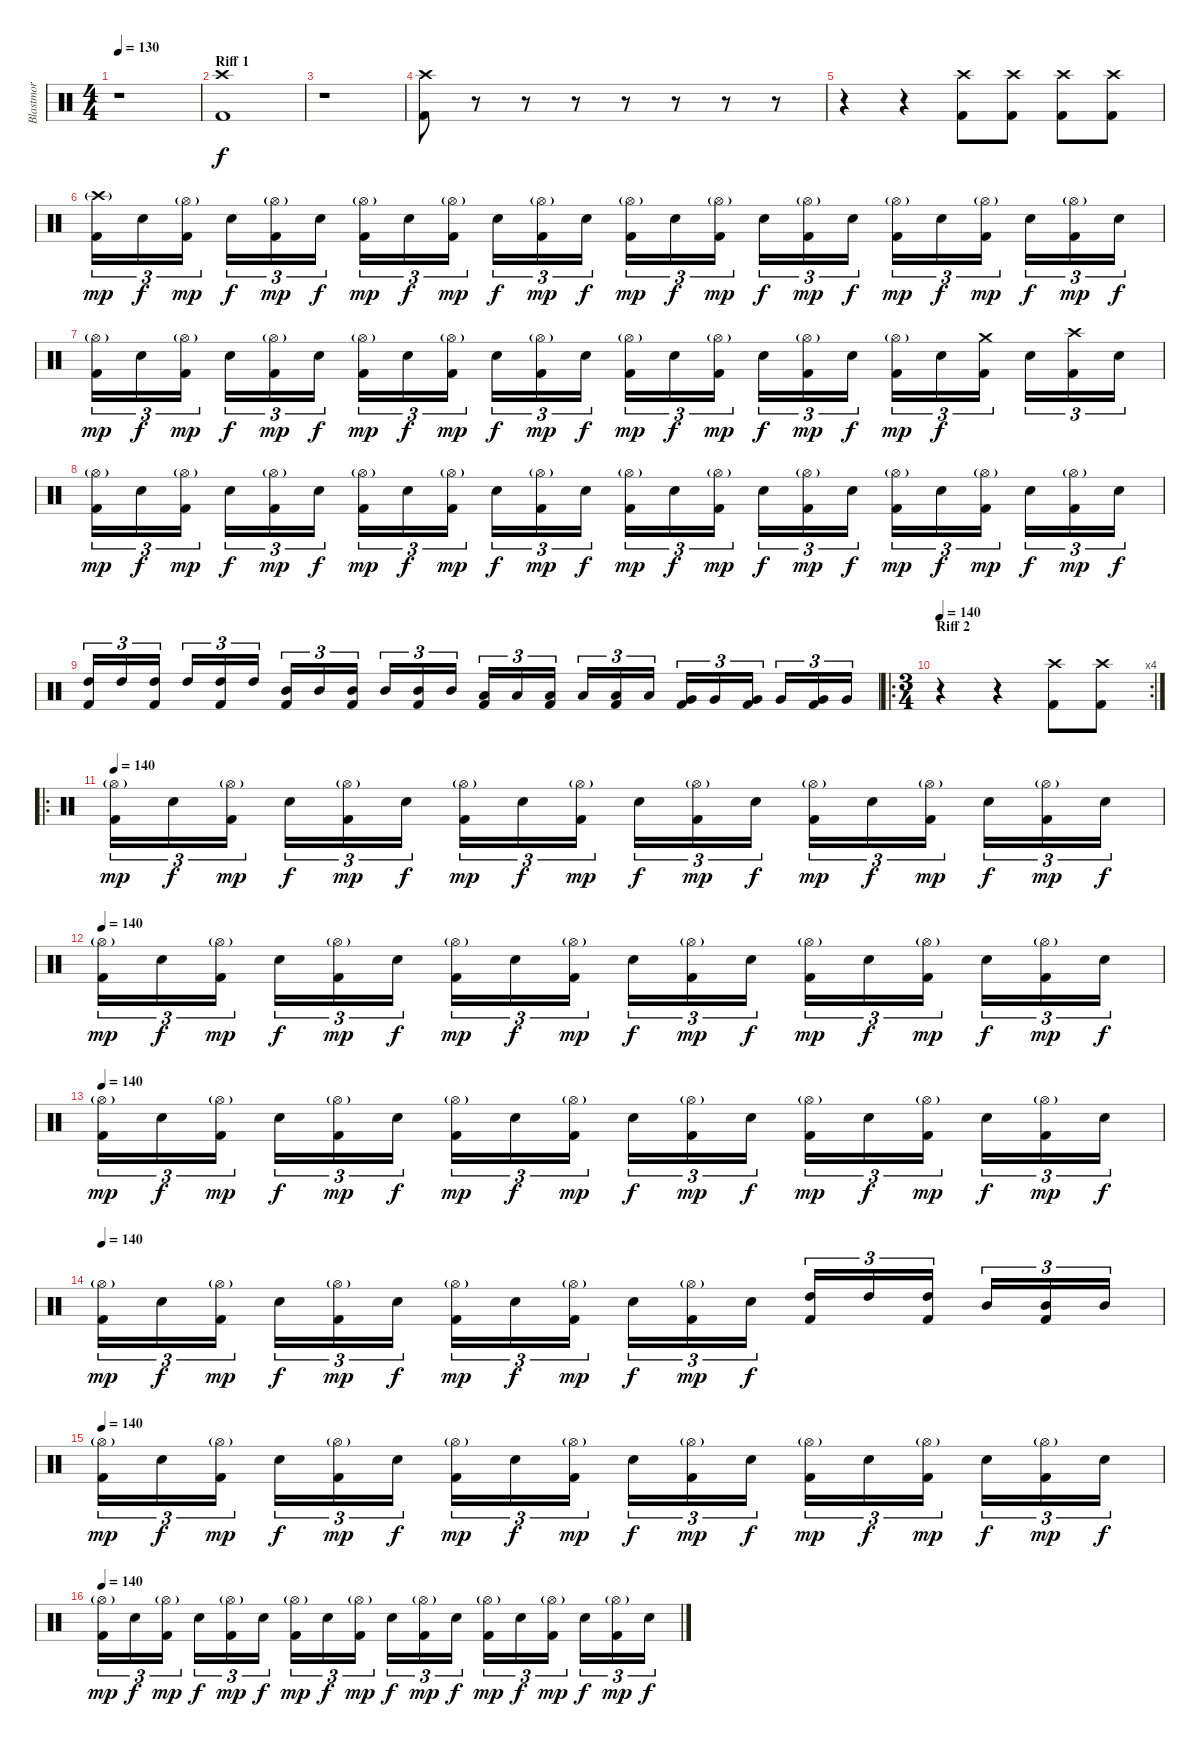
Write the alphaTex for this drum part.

\track ("Blastmor" "Blastmor") {instrument percussion}
\staff {score}
\articulation defaults
\ts (4 4)
\tempo 130
\clef neutral
\ks c
r.1{dy f} |
\section ("" "Riff 1")
("Crash high (hit)" "Kick (hit) 2").1 |
r.1 |
("Crash high (hit)" "Kick (hit) 2").8 r.8 r.8 r.8 r.8 r.8 r.8 r.8 |
r.4 r.4 ("Crash high (hit)" "Kick (hit) 2").8 ("Crash high (hit)" "Kick (hit) 2").8 ("Crash high (hit)" "Kick (hit) 2").8 ("Crash high (hit)" "Kick (hit) 2").8 |
("Crash high (hit)"{g} "Kick (hit) 2").16{tu (3 2) dy mp} "Electric Snare (hit)".16{tu (3 2) dy f} ("Hi-Hat (open)"{g} "Kick (hit) 2").16{tu (3 2) dy mp} "Electric Snare (hit)".16{tu (3 2) dy f} ("Hi-Hat (open)"{g} "Kick (hit) 2").16{tu (3 2) dy mp} "Electric Snare (hit)".16{tu (3 2) dy f} ("Hi-Hat (open)"{g} "Kick (hit) 2").16{tu (3 2) dy mp} "Electric Snare (hit)".16{tu (3 2) dy f} ("Hi-Hat (open)"{g} "Kick (hit) 2").16{tu (3 2) dy mp} "Electric Snare (hit)".16{tu (3 2) dy f} ("Hi-Hat (open)"{g} "Kick (hit) 2").16{tu (3 2) dy mp} "Electric Snare (hit)".16{tu (3 2) dy f} ("Hi-Hat (open)"{g} "Kick (hit) 2").16{tu (3 2) dy mp} "Electric Snare (hit)".16{tu (3 2) dy f} ("Hi-Hat (open)"{g} "Kick (hit) 2").16{tu (3 2) dy mp} "Electric Snare (hit)".16{tu (3 2) dy f} ("Hi-Hat (open)"{g} "Kick (hit) 2").16{tu (3 2) dy mp} "Electric Snare (hit)".16{tu (3 2) dy f} ("Hi-Hat (open)"{g} "Kick (hit) 2").16{tu (3 2) dy mp} "Electric Snare (hit)".16{tu (3 2) dy f} ("Hi-Hat (open)"{g} "Kick (hit) 2").16{tu (3 2) dy mp} "Electric Snare (hit)".16{tu (3 2) dy f} ("Hi-Hat (open)"{g} "Kick (hit) 2").16{tu (3 2) dy mp} "Electric Snare (hit)".16{tu (3 2) dy f} |
("Hi-Hat (open)"{g} "Kick (hit) 2").16{tu (3 2) dy mp} "Electric Snare (hit)".16{tu (3 2) dy f} ("Hi-Hat (open)"{g} "Kick (hit) 2").16{tu (3 2) dy mp} "Electric Snare (hit)".16{tu (3 2) dy f} ("Hi-Hat (open)"{g} "Kick (hit) 2").16{tu (3 2) dy mp} "Electric Snare (hit)".16{tu (3 2) dy f} ("Hi-Hat (open)"{g} "Kick (hit) 2").16{tu (3 2) dy mp} "Electric Snare (hit)".16{tu (3 2) dy f} ("Hi-Hat (open)"{g} "Kick (hit) 2").16{tu (3 2) dy mp} "Electric Snare (hit)".16{tu (3 2) dy f} ("Hi-Hat (open)"{g} "Kick (hit) 2").16{tu (3 2) dy mp} "Electric Snare (hit)".16{tu (3 2) dy f} ("Hi-Hat (open)"{g} "Kick (hit) 2").16{tu (3 2) dy mp} "Electric Snare (hit)".16{tu (3 2) dy f} ("Hi-Hat (open)"{g} "Kick (hit) 2").16{tu (3 2) dy mp} "Electric Snare (hit)".16{tu (3 2) dy f} ("Hi-Hat (open)"{g} "Kick (hit) 2").16{tu (3 2) dy mp} "Electric Snare (hit)".16{tu (3 2) dy f} ("Hi-Hat (open)"{g} "Kick (hit) 2").16{tu (3 2) dy mp} "Electric Snare (hit)".16{tu (3 2) dy f} ("Crash medium (hit)" "Kick (hit) 2").16{tu (3 2)} "Electric Snare (hit)".16{tu (3 2)} ("Crash high (hit)" "Kick (hit) 2").16{tu (3 2)} "Electric Snare (hit)".16{tu (3 2)} |
("Hi-Hat (open)"{g} "Kick (hit) 2").16{tu (3 2) dy mp} "Electric Snare (hit)".16{tu (3 2) dy f} ("Hi-Hat (open)"{g} "Kick (hit) 2").16{tu (3 2) dy mp} "Electric Snare (hit)".16{tu (3 2) dy f} ("Hi-Hat (open)"{g} "Kick (hit) 2").16{tu (3 2) dy mp} "Electric Snare (hit)".16{tu (3 2) dy f} ("Hi-Hat (open)"{g} "Kick (hit) 2").16{tu (3 2) dy mp} "Electric Snare (hit)".16{tu (3 2) dy f} ("Hi-Hat (open)"{g} "Kick (hit) 2").16{tu (3 2) dy mp} "Electric Snare (hit)".16{tu (3 2) dy f} ("Hi-Hat (open)"{g} "Kick (hit) 2").16{tu (3 2) dy mp} "Electric Snare (hit)".16{tu (3 2) dy f} ("Hi-Hat (open)"{g} "Kick (hit) 2").16{tu (3 2) dy mp} "Electric Snare (hit)".16{tu (3 2) dy f} ("Hi-Hat (open)"{g} "Kick (hit) 2").16{tu (3 2) dy mp} "Electric Snare (hit)".16{tu (3 2) dy f} ("Hi-Hat (open)"{g} "Kick (hit) 2").16{tu (3 2) dy mp} "Electric Snare (hit)".16{tu (3 2) dy f} ("Hi-Hat (open)"{g} "Kick (hit) 2").16{tu (3 2) dy mp} "Electric Snare (hit)".16{tu (3 2) dy f} ("Hi-Hat (open)"{g} "Kick (hit) 2").16{tu (3 2) dy mp} "Electric Snare (hit)".16{tu (3 2) dy f} ("Hi-Hat (open)"{g} "Kick (hit) 2").16{tu (3 2) dy mp} "Electric Snare (hit)".16{tu (3 2) dy f} |
("High Tom (hit)" "Kick (hit) 2").16{tu (3 2)} "High Tom (hit)".16{tu (3 2)} ("High Tom (hit)" "Kick (hit) 2").16{tu (3 2)} "High Tom (hit)".16{tu (3 2)} ("High Tom (hit)" "Kick (hit) 2").16{tu (3 2)} "High Tom (hit)".16{tu (3 2)} ("Mid Tom (hit)" "Kick (hit) 2").16{tu (3 2)} "Mid Tom (hit)".16{tu (3 2)} ("Mid Tom (hit)" "Kick (hit) 2").16{tu (3 2)} "Mid Tom (hit)".16{tu (3 2)} ("Mid Tom (hit)" "Kick (hit) 2").16{tu (3 2)} "Mid Tom (hit)".16{tu (3 2)} ("Low Tom (hit)" "Kick (hit) 2").16{tu (3 2)} "Low Tom (hit)".16{tu (3 2)} ("Low Tom (hit)" "Kick (hit) 2").16{tu (3 2)} "Low Tom (hit)".16{tu (3 2)} ("Low Tom (hit)" "Kick (hit) 2").16{tu (3 2)} "Low Tom (hit)".16{tu (3 2)} ("Very Low Tom (hit)" "Kick (hit) 2").16{tu (3 2)} "Very Low Tom (hit)".16{tu (3 2)} ("Very Low Tom (hit)" "Kick (hit) 2").16{tu (3 2)} "Very Low Tom (hit)".16{tu (3 2)} ("Very Low Tom (hit)" "Kick (hit) 2").16{tu (3 2)} "Very Low Tom (hit)".16{tu (3 2)} |
\ro
\rc 4
\ts (3 4)
\section ("" "Riff 2")
\tempo 140
r.4 r.4 ("Crash high (hit)" "Kick (hit) 2").8 ("Crash high (hit)" "Kick (hit) 2").8 |
\ro
\tempo 140
("Hi-Hat (open)"{g} "Kick (hit) 2").16{tu (3 2) dy mp} "Electric Snare (hit)".16{tu (3 2) dy f} ("Hi-Hat (open)"{g} "Kick (hit) 2").16{tu (3 2) dy mp} "Electric Snare (hit)".16{tu (3 2) dy f} ("Hi-Hat (open)"{g} "Kick (hit) 2").16{tu (3 2) dy mp} "Electric Snare (hit)".16{tu (3 2) dy f} ("Hi-Hat (open)"{g} "Kick (hit) 2").16{tu (3 2) dy mp} "Electric Snare (hit)".16{tu (3 2) dy f} ("Hi-Hat (open)"{g} "Kick (hit) 2").16{tu (3 2) dy mp} "Electric Snare (hit)".16{tu (3 2) dy f} ("Hi-Hat (open)"{g} "Kick (hit) 2").16{tu (3 2) dy mp} "Electric Snare (hit)".16{tu (3 2) dy f} ("Hi-Hat (open)"{g} "Kick (hit) 2").16{tu (3 2) dy mp} "Electric Snare (hit)".16{tu (3 2) dy f} ("Hi-Hat (open)"{g} "Kick (hit) 2").16{tu (3 2) dy mp} "Electric Snare (hit)".16{tu (3 2) dy f} ("Hi-Hat (open)"{g} "Kick (hit) 2").16{tu (3 2) dy mp} "Electric Snare (hit)".16{tu (3 2) dy f} |
\tempo 140
("Hi-Hat (open)"{g} "Kick (hit) 2").16{tu (3 2) dy mp} "Electric Snare (hit)".16{tu (3 2) dy f} ("Hi-Hat (open)"{g} "Kick (hit) 2").16{tu (3 2) dy mp} "Electric Snare (hit)".16{tu (3 2) dy f} ("Hi-Hat (open)"{g} "Kick (hit) 2").16{tu (3 2) dy mp} "Electric Snare (hit)".16{tu (3 2) dy f} ("Hi-Hat (open)"{g} "Kick (hit) 2").16{tu (3 2) dy mp} "Electric Snare (hit)".16{tu (3 2) dy f} ("Hi-Hat (open)"{g} "Kick (hit) 2").16{tu (3 2) dy mp} "Electric Snare (hit)".16{tu (3 2) dy f} ("Hi-Hat (open)"{g} "Kick (hit) 2").16{tu (3 2) dy mp} "Electric Snare (hit)".16{tu (3 2) dy f} ("Hi-Hat (open)"{g} "Kick (hit) 2").16{tu (3 2) dy mp} "Electric Snare (hit)".16{tu (3 2) dy f} ("Hi-Hat (open)"{g} "Kick (hit) 2").16{tu (3 2) dy mp} "Electric Snare (hit)".16{tu (3 2) dy f} ("Hi-Hat (open)"{g} "Kick (hit) 2").16{tu (3 2) dy mp} "Electric Snare (hit)".16{tu (3 2) dy f} |
\tempo 140
("Hi-Hat (open)"{g} "Kick (hit) 2").16{tu (3 2) dy mp} "Electric Snare (hit)".16{tu (3 2) dy f} ("Hi-Hat (open)"{g} "Kick (hit) 2").16{tu (3 2) dy mp} "Electric Snare (hit)".16{tu (3 2) dy f} ("Hi-Hat (open)"{g} "Kick (hit) 2").16{tu (3 2) dy mp} "Electric Snare (hit)".16{tu (3 2) dy f} ("Hi-Hat (open)"{g} "Kick (hit) 2").16{tu (3 2) dy mp} "Electric Snare (hit)".16{tu (3 2) dy f} ("Hi-Hat (open)"{g} "Kick (hit) 2").16{tu (3 2) dy mp} "Electric Snare (hit)".16{tu (3 2) dy f} ("Hi-Hat (open)"{g} "Kick (hit) 2").16{tu (3 2) dy mp} "Electric Snare (hit)".16{tu (3 2) dy f} ("Hi-Hat (open)"{g} "Kick (hit) 2").16{tu (3 2) dy mp} "Electric Snare (hit)".16{tu (3 2) dy f} ("Hi-Hat (open)"{g} "Kick (hit) 2").16{tu (3 2) dy mp} "Electric Snare (hit)".16{tu (3 2) dy f} ("Hi-Hat (open)"{g} "Kick (hit) 2").16{tu (3 2) dy mp} "Electric Snare (hit)".16{tu (3 2) dy f} |
\tempo 140
("Hi-Hat (open)"{g} "Kick (hit) 2").16{tu (3 2) dy mp} "Electric Snare (hit)".16{tu (3 2) dy f} ("Hi-Hat (open)"{g} "Kick (hit) 2").16{tu (3 2) dy mp} "Electric Snare (hit)".16{tu (3 2) dy f} ("Hi-Hat (open)"{g} "Kick (hit) 2").16{tu (3 2) dy mp} "Electric Snare (hit)".16{tu (3 2) dy f} ("Hi-Hat (open)"{g} "Kick (hit) 2").16{tu (3 2) dy mp} "Electric Snare (hit)".16{tu (3 2) dy f} ("Hi-Hat (open)"{g} "Kick (hit) 2").16{tu (3 2) dy mp} "Electric Snare (hit)".16{tu (3 2) dy f} ("Hi-Hat (open)"{g} "Kick (hit) 2").16{tu (3 2) dy mp} "Electric Snare (hit)".16{tu (3 2) dy f} ("High Tom (hit)" "Kick (hit) 2").16{tu (3 2)} "High Tom (hit)".16{tu (3 2)} ("High Tom (hit)" "Kick (hit) 2").16{tu (3 2)} "Mid Tom (hit)".16{tu (3 2)} ("Mid Tom (hit)" "Kick (hit) 2").16{tu (3 2)} "Mid Tom (hit)".16{tu (3 2)} |
\tempo 140
("Hi-Hat (open)"{g} "Kick (hit) 2").16{tu (3 2) dy mp} "Electric Snare (hit)".16{tu (3 2) dy f} ("Hi-Hat (open)"{g} "Kick (hit) 2").16{tu (3 2) dy mp} "Electric Snare (hit)".16{tu (3 2) dy f} ("Hi-Hat (open)"{g} "Kick (hit) 2").16{tu (3 2) dy mp} "Electric Snare (hit)".16{tu (3 2) dy f} ("Hi-Hat (open)"{g} "Kick (hit) 2").16{tu (3 2) dy mp} "Electric Snare (hit)".16{tu (3 2) dy f} ("Hi-Hat (open)"{g} "Kick (hit) 2").16{tu (3 2) dy mp} "Electric Snare (hit)".16{tu (3 2) dy f} ("Hi-Hat (open)"{g} "Kick (hit) 2").16{tu (3 2) dy mp} "Electric Snare (hit)".16{tu (3 2) dy f} ("Hi-Hat (open)"{g} "Kick (hit) 2").16{tu (3 2) dy mp} "Electric Snare (hit)".16{tu (3 2) dy f} ("Hi-Hat (open)"{g} "Kick (hit) 2").16{tu (3 2) dy mp} "Electric Snare (hit)".16{tu (3 2) dy f} ("Hi-Hat (open)"{g} "Kick (hit) 2").16{tu (3 2) dy mp} "Electric Snare (hit)".16{tu (3 2) dy f} |
\tempo 140
("Hi-Hat (open)"{g} "Kick (hit) 2").16{tu (3 2) dy mp} "Electric Snare (hit)".16{tu (3 2) dy f} ("Hi-Hat (open)"{g} "Kick (hit) 2").16{tu (3 2) dy mp} "Electric Snare (hit)".16{tu (3 2) dy f} ("Hi-Hat (open)"{g} "Kick (hit) 2").16{tu (3 2) dy mp} "Electric Snare (hit)".16{tu (3 2) dy f} ("Hi-Hat (open)"{g} "Kick (hit) 2").16{tu (3 2) dy mp} "Electric Snare (hit)".16{tu (3 2) dy f} ("Hi-Hat (open)"{g} "Kick (hit) 2").16{tu (3 2) dy mp} "Electric Snare (hit)".16{tu (3 2) dy f} ("Hi-Hat (open)"{g} "Kick (hit) 2").16{tu (3 2) dy mp} "Electric Snare (hit)".16{tu (3 2) dy f} ("Hi-Hat (open)"{g} "Kick (hit) 2").16{tu (3 2) dy mp} "Electric Snare (hit)".16{tu (3 2) dy f} ("Hi-Hat (open)"{g} "Kick (hit) 2").16{tu (3 2) dy mp} "Electric Snare (hit)".16{tu (3 2) dy f} ("Hi-Hat (open)"{g} "Kick (hit) 2").16{tu (3 2) dy mp} "Electric Snare (hit)".16{tu (3 2) dy f}
